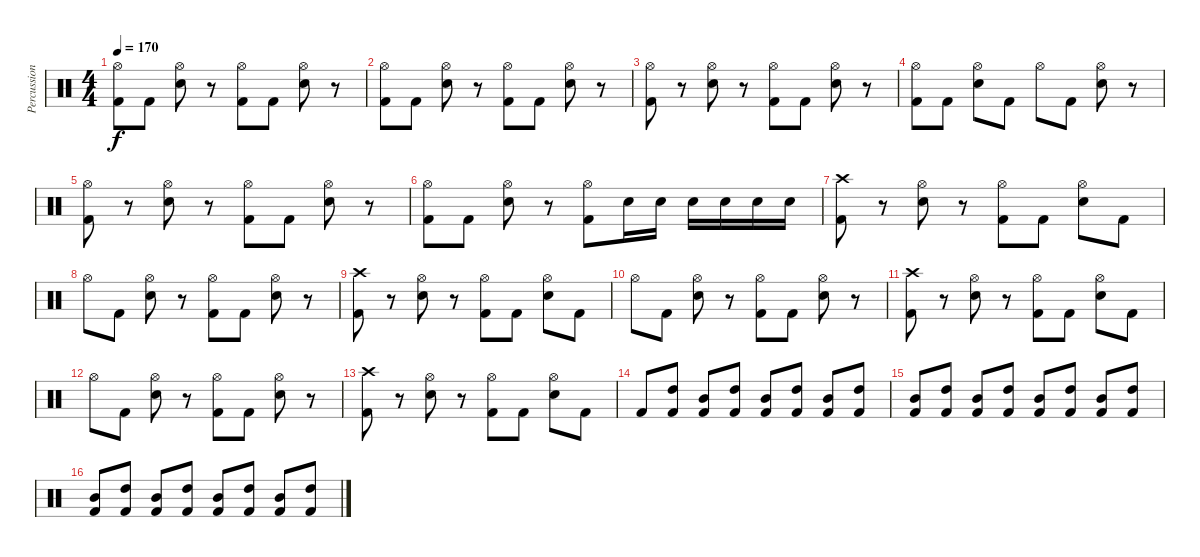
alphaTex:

\track ("Percussion" "Percussion") {instrument percussion}
\staff {score}
\articulation defaults
\ts (4 4)
\tempo 170
\clef neutral
\ks c
("Hi-Hat (open)" "Kick (hit) 2").8{dy f} "Kick (hit) 2".8 ("Hi-Hat (open)" "Electric Snare (hit)").8 r.8 ("Hi-Hat (open)" "Kick (hit) 2").8 "Kick (hit) 2".8 ("Hi-Hat (open)" "Electric Snare (hit)").8 r.8 |
("Hi-Hat (open)" "Kick (hit) 2").8 "Kick (hit) 2".8 ("Hi-Hat (open)" "Electric Snare (hit)").8 r.8 ("Hi-Hat (open)" "Kick (hit) 2").8 "Kick (hit) 2".8 ("Hi-Hat (open)" "Electric Snare (hit)").8 r.8 |
("Hi-Hat (open)" "Kick (hit) 2").8 r.8 ("Hi-Hat (open)" "Electric Snare (hit)").8 r.8 ("Hi-Hat (open)" "Kick (hit) 2").8 "Kick (hit) 2".8 ("Hi-Hat (open)" "Electric Snare (hit)").8 r.8 |
("Hi-Hat (open)" "Kick (hit) 2").8 "Kick (hit) 2".8 ("Hi-Hat (open)" "Electric Snare (hit)").8 "Kick (hit) 2".8 "Hi-Hat (open)".8 "Kick (hit) 2".8 ("Hi-Hat (open)" "Electric Snare (hit)").8 r.8 |
("Hi-Hat (open)" "Kick (hit) 2").8 r.8 ("Hi-Hat (open)" "Electric Snare (hit)").8 r.8 ("Hi-Hat (open)" "Kick (hit) 2").8 "Kick (hit) 2".8 ("Hi-Hat (open)" "Electric Snare (hit)").8 r.8 |
("Hi-Hat (open)" "Kick (hit) 2").8 "Kick (hit) 2".8 ("Hi-Hat (open)" "Electric Snare (hit)").8 r.8 ("Hi-Hat (open)" "Kick (hit) 2").8 "Electric Snare (hit)".16 "Electric Snare (hit)".16 "Electric Snare (hit)".16 "Electric Snare (hit)".16 "Electric Snare (hit)".16 "Electric Snare (hit)".16 |
("Crash high (hit)" "Kick (hit) 2").8 r.8 ("Hi-Hat (open)" "Electric Snare (hit)").8 r.8 ("Hi-Hat (open)" "Kick (hit) 2").8 "Kick (hit) 2".8 ("Hi-Hat (open)" "Electric Snare (hit)").8 "Kick (hit) 2".8 |
"Hi-Hat (open)".8 "Kick (hit) 2".8 ("Hi-Hat (open)" "Electric Snare (hit)").8 r.8 ("Hi-Hat (open)" "Kick (hit) 2").8 "Kick (hit) 2".8 ("Hi-Hat (open)" "Electric Snare (hit)").8 r.8 |
("Crash high (hit)" "Kick (hit) 2").8 r.8 ("Hi-Hat (open)" "Electric Snare (hit)").8 r.8 ("Hi-Hat (open)" "Kick (hit) 2").8 "Kick (hit) 2".8 ("Hi-Hat (open)" "Electric Snare (hit)").8 "Kick (hit) 2".8 |
"Hi-Hat (open)".8 "Kick (hit) 2".8 ("Hi-Hat (open)" "Electric Snare (hit)").8 r.8 ("Hi-Hat (open)" "Kick (hit) 2").8 "Kick (hit) 2".8 ("Hi-Hat (open)" "Electric Snare (hit)").8 r.8 |
("Crash high (hit)" "Kick (hit) 2").8 r.8 ("Hi-Hat (open)" "Electric Snare (hit)").8 r.8 ("Hi-Hat (open)" "Kick (hit) 2").8 "Kick (hit) 2".8 ("Hi-Hat (open)" "Electric Snare (hit)").8 "Kick (hit) 2".8 |
"Hi-Hat (open)".8 "Kick (hit) 2".8 ("Hi-Hat (open)" "Electric Snare (hit)").8 r.8 ("Hi-Hat (open)" "Kick (hit) 2").8 "Kick (hit) 2".8 ("Hi-Hat (open)" "Electric Snare (hit)").8 r.8 |
("Crash high (hit)" "Kick (hit) 2").8 r.8 ("Hi-Hat (open)" "Electric Snare (hit)").8 r.8 ("Hi-Hat (open)" "Kick (hit) 2").8 "Kick (hit) 2".8 ("Hi-Hat (open)" "Electric Snare (hit)").8 "Kick (hit) 2".8 |
"Kick (hit) 2".8 ("High Tom (hit)" "Kick (hit) 2").8 ("Mid Tom (hit)" "Kick (hit) 2").8 ("High Tom (hit)" "Kick (hit) 2").8 ("Mid Tom (hit)" "Kick (hit) 2").8 ("High Tom (hit)" "Kick (hit) 2").8 ("Mid Tom (hit)" "Kick (hit) 2").8 ("High Tom (hit)" "Kick (hit) 2").8 |
("Mid Tom (hit)" "Kick (hit) 2").8 ("High Tom (hit)" "Kick (hit) 2").8 ("Mid Tom (hit)" "Kick (hit) 2").8 ("High Tom (hit)" "Kick (hit) 2").8 ("Mid Tom (hit)" "Kick (hit) 2").8 ("High Tom (hit)" "Kick (hit) 2").8 ("Mid Tom (hit)" "Kick (hit) 2").8 ("High Tom (hit)" "Kick (hit) 2").8 |
("Mid Tom (hit)" "Kick (hit) 2").8 ("High Tom (hit)" "Kick (hit) 2").8 ("Mid Tom (hit)" "Kick (hit) 2").8 ("High Tom (hit)" "Kick (hit) 2").8 ("Mid Tom (hit)" "Kick (hit) 2").8 ("High Tom (hit)" "Kick (hit) 2").8 ("Mid Tom (hit)" "Kick (hit) 2").8 ("High Tom (hit)" "Kick (hit) 2").8
